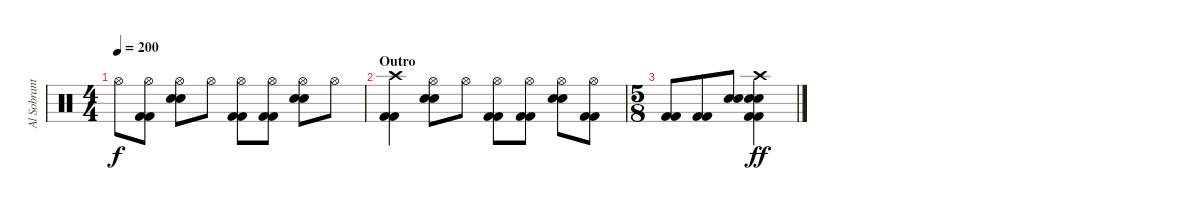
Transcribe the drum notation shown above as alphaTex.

\track ("Al Sobrante (Drums)" "Al Sobrant") {instrument percussion}
\staff {score}
\articulation defaults
\ts (4 4)
\tempo 200
\clef neutral
\ks c "Hi-Hat (open)".8{dy f}
("Kick (hit) 2" "Kick (hit) 2" "Hi-Hat (open)").8 ("Electric Snare (hit)" "Electric Snare (hit)" "Hi-Hat (open)").8 "Hi-Hat (open)".8 ("Kick (hit) 2" "Kick (hit) 2" "Hi-Hat (open)").8 ("Kick (hit) 2" "Kick (hit) 2" "Hi-Hat (open)").8 ("Electric Snare (hit)" "Electric Snare (hit)" "Hi-Hat (open)").8 "Hi-Hat (open)".8 |
\section ("" "Outro")
("Kick (hit) 2" "Kick (hit) 2" "Crash high (hit)").4 ("Electric Snare (hit)" "Electric Snare (hit)" "Hi-Hat (open)").8 "Hi-Hat (open)".8 ("Kick (hit) 2" "Kick (hit) 2" "Hi-Hat (open)").8 ("Kick (hit) 2" "Kick (hit) 2" "Hi-Hat (open)").8 ("Electric Snare (hit)" "Electric Snare (hit)" "Hi-Hat (open)").8 ("Kick (hit) 2" "Kick (hit) 2" "Hi-Hat (open)").8 |
\ts (5 8)
("Kick (hit) 2" "Kick (hit) 2").8 ("Kick (hit) 2" "Kick (hit) 2").8 ("Electric Snare (hit)" "Electric Snare (hit)").8 ("Kick (hit) 2" "Kick (hit) 2" "Electric Snare (hit)" "Electric Snare (hit)" "Crash high (hit)").4{dy ff}
